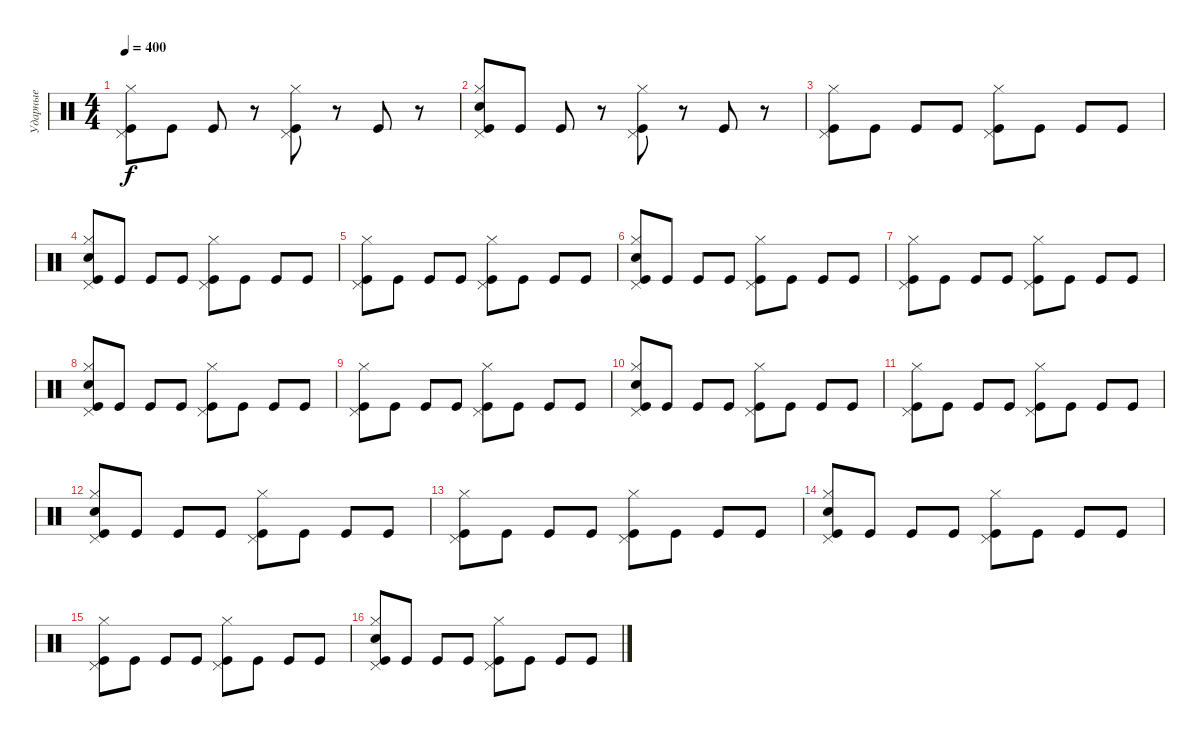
\track ("Ударные" "Ударные") {instrument percussion}
\staff {score}
\articulation defaults
\ts (4 4)
\tempo 400
\clef neutral
\ks c
("Kick (hit)" "Pedal Hi-Hat (hit)" "Hi-Hat (closed)").8{dy f} "Kick (hit)".8 "Kick (hit)".8 r.8 ("Kick (hit)" "Hi-Hat (closed)" "Pedal Hi-Hat (hit)").8 r.8 "Kick (hit)".8 r.8 |
("Kick (hit)" "Electric Snare (hit)" "Hi-Hat (closed)" "Pedal Hi-Hat (hit)").8 "Kick (hit)".8 "Kick (hit)".8 r.8 ("Kick (hit)" "Hi-Hat (closed)" "Pedal Hi-Hat (hit)").8 r.8 "Kick (hit)".8 r.8 |
("Kick (hit)" "Hi-Hat (closed)" "Pedal Hi-Hat (hit)").8 "Kick (hit)".8 "Kick (hit)".8 "Kick (hit)".8 ("Kick (hit)" "Hi-Hat (closed)" "Pedal Hi-Hat (hit)").8 "Kick (hit)".8 "Kick (hit)".8 "Kick (hit)".8 |
("Kick (hit)" "Electric Snare (hit)" "Pedal Hi-Hat (hit)" "Hi-Hat (closed)").8 "Kick (hit)".8 "Kick (hit)".8 "Kick (hit)".8 ("Kick (hit)" "Hi-Hat (closed)" "Pedal Hi-Hat (hit)").8 "Kick (hit)".8 "Kick (hit)".8 "Kick (hit)".8 |
("Kick (hit)" "Pedal Hi-Hat (hit)" "Hi-Hat (closed)").8 "Kick (hit)".8 "Kick (hit)".8 "Kick (hit)".8 ("Kick (hit)" "Hi-Hat (closed)" "Pedal Hi-Hat (hit)").8 "Kick (hit)".8 "Kick (hit)".8 "Kick (hit)".8 |
("Kick (hit)" "Electric Snare (hit)" "Hi-Hat (closed)" "Pedal Hi-Hat (hit)").8 "Kick (hit)".8 "Kick (hit)".8 "Kick (hit)".8 ("Kick (hit)" "Hi-Hat (closed)" "Pedal Hi-Hat (hit)").8 "Kick (hit)".8 "Kick (hit)".8 "Kick (hit)".8 |
("Kick (hit)" "Hi-Hat (closed)" "Pedal Hi-Hat (hit)").8 "Kick (hit)".8 "Kick (hit)".8 "Kick (hit)".8 ("Kick (hit)" "Hi-Hat (closed)" "Pedal Hi-Hat (hit)").8 "Kick (hit)".8 "Kick (hit)".8 "Kick (hit)".8 |
("Kick (hit)" "Electric Snare (hit)" "Pedal Hi-Hat (hit)" "Hi-Hat (closed)").8 "Kick (hit)".8 "Kick (hit)".8 "Kick (hit)".8 ("Kick (hit)" "Hi-Hat (closed)" "Pedal Hi-Hat (hit)").8 "Kick (hit)".8 "Kick (hit)".8 "Kick (hit)".8 |
("Kick (hit)" "Pedal Hi-Hat (hit)" "Hi-Hat (closed)").8 "Kick (hit)".8 "Kick (hit)".8 "Kick (hit)".8 ("Kick (hit)" "Hi-Hat (closed)" "Pedal Hi-Hat (hit)").8 "Kick (hit)".8 "Kick (hit)".8 "Kick (hit)".8 |
("Kick (hit)" "Electric Snare (hit)" "Hi-Hat (closed)" "Pedal Hi-Hat (hit)").8 "Kick (hit)".8 "Kick (hit)".8 "Kick (hit)".8 ("Kick (hit)" "Hi-Hat (closed)" "Pedal Hi-Hat (hit)").8 "Kick (hit)".8 "Kick (hit)".8 "Kick (hit)".8 |
("Kick (hit)" "Hi-Hat (closed)" "Pedal Hi-Hat (hit)").8 "Kick (hit)".8 "Kick (hit)".8 "Kick (hit)".8 ("Kick (hit)" "Hi-Hat (closed)" "Pedal Hi-Hat (hit)").8 "Kick (hit)".8 "Kick (hit)".8 "Kick (hit)".8 |
("Kick (hit)" "Electric Snare (hit)" "Pedal Hi-Hat (hit)" "Hi-Hat (closed)").8 "Kick (hit)".8 "Kick (hit)".8 "Kick (hit)".8 ("Kick (hit)" "Hi-Hat (closed)" "Pedal Hi-Hat (hit)").8 "Kick (hit)".8 "Kick (hit)".8 "Kick (hit)".8 |
("Kick (hit)" "Pedal Hi-Hat (hit)" "Hi-Hat (closed)").8 "Kick (hit)".8 "Kick (hit)".8 "Kick (hit)".8 ("Kick (hit)" "Hi-Hat (closed)" "Pedal Hi-Hat (hit)").8 "Kick (hit)".8 "Kick (hit)".8 "Kick (hit)".8 |
("Kick (hit)" "Electric Snare (hit)" "Hi-Hat (closed)" "Pedal Hi-Hat (hit)").8 "Kick (hit)".8 "Kick (hit)".8 "Kick (hit)".8 ("Kick (hit)" "Hi-Hat (closed)" "Pedal Hi-Hat (hit)").8 "Kick (hit)".8 "Kick (hit)".8 "Kick (hit)".8 |
("Kick (hit)" "Hi-Hat (closed)" "Pedal Hi-Hat (hit)").8 "Kick (hit)".8 "Kick (hit)".8 "Kick (hit)".8 ("Kick (hit)" "Hi-Hat (closed)" "Pedal Hi-Hat (hit)").8 "Kick (hit)".8 "Kick (hit)".8 "Kick (hit)".8 |
("Kick (hit)" "Electric Snare (hit)" "Pedal Hi-Hat (hit)" "Hi-Hat (closed)").8 "Kick (hit)".8 "Kick (hit)".8 "Kick (hit)".8 ("Kick (hit)" "Hi-Hat (closed)" "Pedal Hi-Hat (hit)").8 "Kick (hit)".8 "Kick (hit)".8 "Kick (hit)".8
